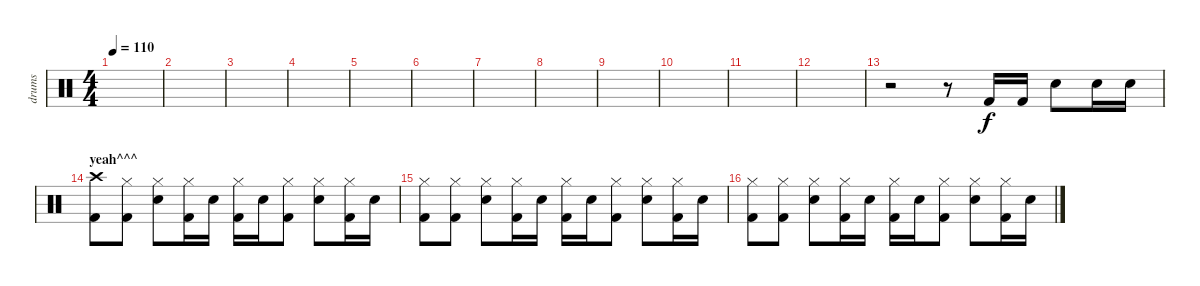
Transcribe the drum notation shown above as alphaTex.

\track ("drums" "drums") {instrument percussion}
\staff {score}
\articulation defaults
\ts (4 4)
\tempo 110
\clef neutral
\ks c
|
|
|
|
|
|
|
|
|
|
|
|
r.2 r.8 "Kick (hit) 2".16 "Kick (hit) 2".16 "Snare (hit) 2".8 "Snare (hit) 2".16 "Snare (hit) 2".16 |
\section ("" "yeah^^^")
("Crash high (hit)" "Kick (hit) 2").8 ("Hi-Hat (closed)" "Kick (hit) 2").8 ("Hi-Hat (closed)" "Snare (hit) 2").8 ("Hi-Hat (closed)" "Kick (hit) 2").16 "Snare (hit) 2".16 ("Hi-Hat (closed)" "Kick (hit) 2").16 "Snare (hit) 2".16 ("Hi-Hat (closed)" "Kick (hit) 2").8 ("Hi-Hat (closed)" "Snare (hit) 2").8 ("Hi-Hat (closed)" "Kick (hit) 2").16 "Snare (hit) 2".16 |
("Hi-Hat (closed)" "Kick (hit) 2").8 ("Hi-Hat (closed)" "Kick (hit) 2").8 ("Hi-Hat (closed)" "Snare (hit) 2").8 ("Hi-Hat (closed)" "Kick (hit) 2").16 "Snare (hit) 2".16 ("Hi-Hat (closed)" "Kick (hit) 2").16 "Snare (hit) 2".16 ("Hi-Hat (closed)" "Kick (hit) 2").8 ("Hi-Hat (closed)" "Snare (hit) 2").8 ("Hi-Hat (closed)" "Kick (hit) 2").16 "Snare (hit) 2".16 |
("Hi-Hat (closed)" "Kick (hit) 2").8 ("Hi-Hat (closed)" "Kick (hit) 2").8 ("Hi-Hat (closed)" "Snare (hit) 2").8 ("Hi-Hat (closed)" "Kick (hit) 2").16 "Snare (hit) 2".16 ("Hi-Hat (closed)" "Kick (hit) 2").16 "Snare (hit) 2".16 ("Hi-Hat (closed)" "Kick (hit) 2").8 ("Hi-Hat (closed)" "Snare (hit) 2").8 ("Hi-Hat (closed)" "Kick (hit) 2").16 "Snare (hit) 2".16
